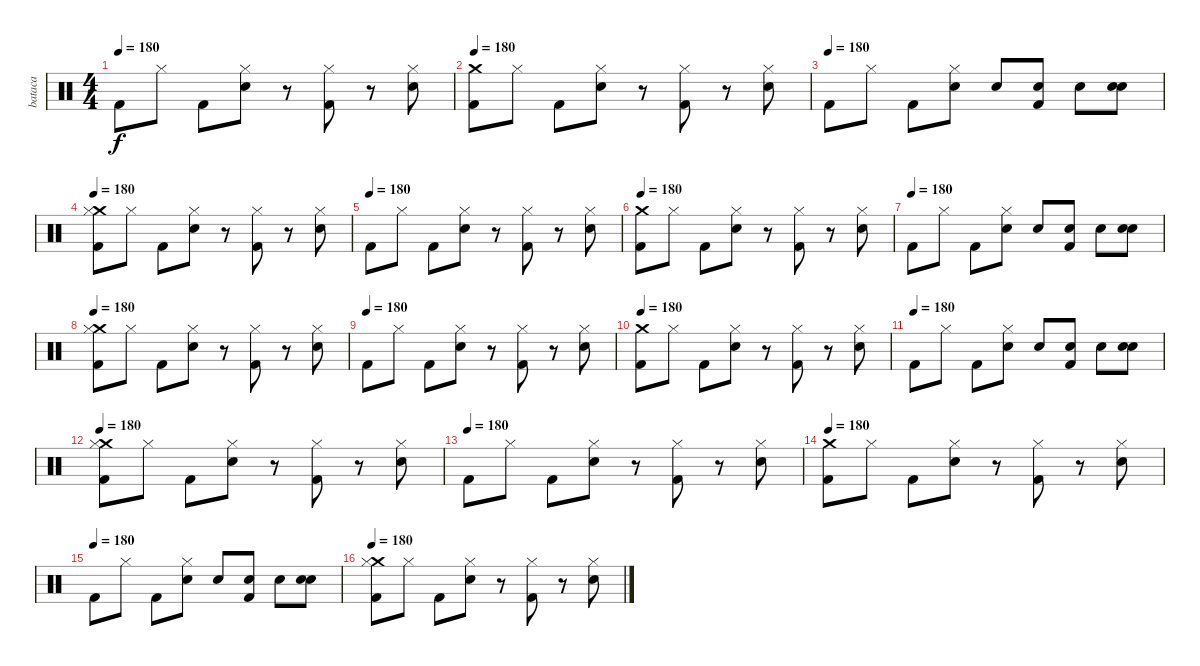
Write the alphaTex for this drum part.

\track ("bataca" "bataca") {instrument percussion}
\staff {score}
\articulation defaults
\ts (4 4)
\tempo 180
\clef neutral
\ks c "Kick (hit) 2".8{dy f} "Hi-Hat (closed)".8 "Kick (hit) 2".8
("Hi-Hat (closed)" "Snare (hit) 2").8 r.8 ("Hi-Hat (closed)" "Kick (hit) 2").8 r.8 ("Hi-Hat (closed)" "Snare (hit) 2").8 |
\tempo 180
("Crash medium (hit)" "Kick (hit) 2").8 "Hi-Hat (closed)".8 "Kick (hit) 2".8 ("Hi-Hat (closed)" "Snare (hit) 2").8 r.8 ("Hi-Hat (closed)" "Kick (hit) 2").8 r.8 ("Hi-Hat (closed)" "Snare (hit) 2").8 |
\tempo (180)
"Kick (hit) 2".8 "Hi-Hat (closed)".8 "Kick (hit) 2".8 ("Hi-Hat (closed)" "Snare (hit) 2").8 "Snare (hit) 2".8 ("Snare (hit) 2" "Kick (hit) 2").8 "Snare (hit) 2".8 ("Snare (hit) 2" "Snare (hit) 2").8 |
\tempo 180
("Crash medium (hit)" "Hi-Hat (closed)" "Kick (hit) 2").8 "Hi-Hat (closed)".8 "Kick (hit) 2".8 ("Hi-Hat (closed)" "Snare (hit) 2").8 r.8 ("Hi-Hat (closed)" "Kick (hit) 2").8 r.8 ("Hi-Hat (closed)" "Snare (hit) 2").8 |
\tempo (180)
"Kick (hit) 2".8 "Hi-Hat (closed)".8 "Kick (hit) 2".8 ("Hi-Hat (closed)" "Snare (hit) 2").8 r.8 ("Hi-Hat (closed)" "Kick (hit) 2").8 r.8 ("Hi-Hat (closed)" "Snare (hit) 2").8 |
\tempo 180
("Crash medium (hit)" "Kick (hit) 2").8 "Hi-Hat (closed)".8 "Kick (hit) 2".8 ("Hi-Hat (closed)" "Snare (hit) 2").8 r.8 ("Hi-Hat (closed)" "Kick (hit) 2").8 r.8 ("Hi-Hat (closed)" "Snare (hit) 2").8 |
\tempo (180)
"Kick (hit) 2".8 "Hi-Hat (closed)".8 "Kick (hit) 2".8 ("Hi-Hat (closed)" "Snare (hit) 2").8 "Snare (hit) 2".8 ("Snare (hit) 2" "Kick (hit) 2").8 "Snare (hit) 2".8 ("Snare (hit) 2" "Snare (hit) 2").8 |
\tempo 180
("Crash medium (hit)" "Hi-Hat (closed)" "Kick (hit) 2").8 "Hi-Hat (closed)".8 "Kick (hit) 2".8 ("Hi-Hat (closed)" "Snare (hit) 2").8 r.8 ("Hi-Hat (closed)" "Kick (hit) 2").8 r.8 ("Hi-Hat (closed)" "Snare (hit) 2").8 |
\tempo (180)
"Kick (hit) 2".8 "Hi-Hat (closed)".8 "Kick (hit) 2".8 ("Hi-Hat (closed)" "Snare (hit) 2").8 r.8 ("Hi-Hat (closed)" "Kick (hit) 2").8 r.8 ("Hi-Hat (closed)" "Snare (hit) 2").8 |
\tempo 180
("Crash medium (hit)" "Kick (hit) 2").8 "Hi-Hat (closed)".8 "Kick (hit) 2".8 ("Hi-Hat (closed)" "Snare (hit) 2").8 r.8 ("Hi-Hat (closed)" "Kick (hit) 2").8 r.8 ("Hi-Hat (closed)" "Snare (hit) 2").8 |
\tempo (180)
"Kick (hit) 2".8 "Hi-Hat (closed)".8 "Kick (hit) 2".8 ("Hi-Hat (closed)" "Snare (hit) 2").8 "Snare (hit) 2".8 ("Snare (hit) 2" "Kick (hit) 2").8 "Snare (hit) 2".8 ("Snare (hit) 2" "Snare (hit) 2").8 |
\tempo 180
("Crash medium (hit)" "Hi-Hat (closed)" "Kick (hit) 2").8 "Hi-Hat (closed)".8 "Kick (hit) 2".8 ("Hi-Hat (closed)" "Snare (hit) 2").8 r.8 ("Hi-Hat (closed)" "Kick (hit) 2").8 r.8 ("Hi-Hat (closed)" "Snare (hit) 2").8 |
\tempo (180)
"Kick (hit) 2".8 "Hi-Hat (closed)".8 "Kick (hit) 2".8 ("Hi-Hat (closed)" "Snare (hit) 2").8 r.8 ("Hi-Hat (closed)" "Kick (hit) 2").8 r.8 ("Hi-Hat (closed)" "Snare (hit) 2").8 |
\tempo 180
("Crash medium (hit)" "Kick (hit) 2").8 "Hi-Hat (closed)".8 "Kick (hit) 2".8 ("Hi-Hat (closed)" "Snare (hit) 2").8 r.8 ("Hi-Hat (closed)" "Kick (hit) 2").8 r.8 ("Hi-Hat (closed)" "Snare (hit) 2").8 |
\tempo (180)
"Kick (hit) 2".8 "Hi-Hat (closed)".8 "Kick (hit) 2".8 ("Hi-Hat (closed)" "Snare (hit) 2").8 "Snare (hit) 2".8 ("Snare (hit) 2" "Kick (hit) 2").8 "Snare (hit) 2".8 ("Snare (hit) 2" "Snare (hit) 2").8 |
\tempo 180
("Crash medium (hit)" "Hi-Hat (closed)" "Kick (hit) 2").8 "Hi-Hat (closed)".8 "Kick (hit) 2".8 ("Hi-Hat (closed)" "Snare (hit) 2").8 r.8 ("Hi-Hat (closed)" "Kick (hit) 2").8 r.8 ("Hi-Hat (closed)" "Snare (hit) 2").8
